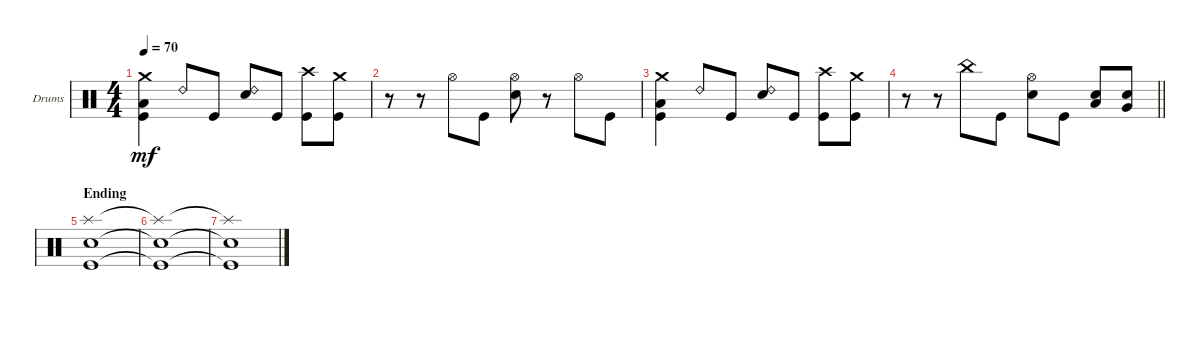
\bracketExtendMode groupsimilarinstruments
\firstSystemTrackNameOrientation horizontal
\otherSystemsTrackNameOrientation horizontal
\track ("Drumkit" "Drums") {instrument percussion}
\staff {score}
\articulation defaults
\ts (4 4)
\tempo 70
\clef neutral
\scale
0.25
\ks c
("Crash medium (hit)" "Kick (hit)" "Low Tom (hit)").4{dy mf} "Ride (bell) 2".8 "Kick (hit)".8 ("Snare (hit) 2" "Ride (bell) 2").8 "Kick (hit)".8 ("Kick (hit)" "Crash high (hit)").8 ("Kick (hit)" "Crash medium (hit)").8 |
\scale
0.25 r.8 r.8 "Hi-Hat (open)".8 "Kick (hit)".8 ("Hi-Hat (open)" "Snare (hit) 2").8 r.8 "Hi-Hat (open)".8 "Kick (hit)".8 |
\scale
0.25 ("Crash medium (hit)" "Kick (hit)" "Low Tom (hit)").4 "Ride (bell) 2".8 "Kick (hit)".8 ("Snare (hit) 2" "Ride (bell) 2").8 "Kick (hit)".8 ("Kick (hit)" "Crash high (hit)").8 ("Kick (hit)" "Crash medium (hit)").8 |
\scale
0.25
\barLineRight lightlight
r.8 r.8 "China (hit)".8 "Kick (hit)".8 ("Hi-Hat (open)" "Snare (hit) 2").8 "Kick (hit)".8 ("Snare (hit) 2" "Low Tom (hit)").8 ("Very Low Tom (hit)" "Snare (hit) 2").8 |
\section ("" "Ending")
("Kick (hit)" "Splash (hit)" "Snare (hit) 2").1 |
("Kick (hit)"{t} "Splash (hit)"{t} "Snare (hit) 2"{t}).1 |
("Kick (hit)"{t} "Splash (hit)"{t} "Snare (hit) 2"{t}).1
